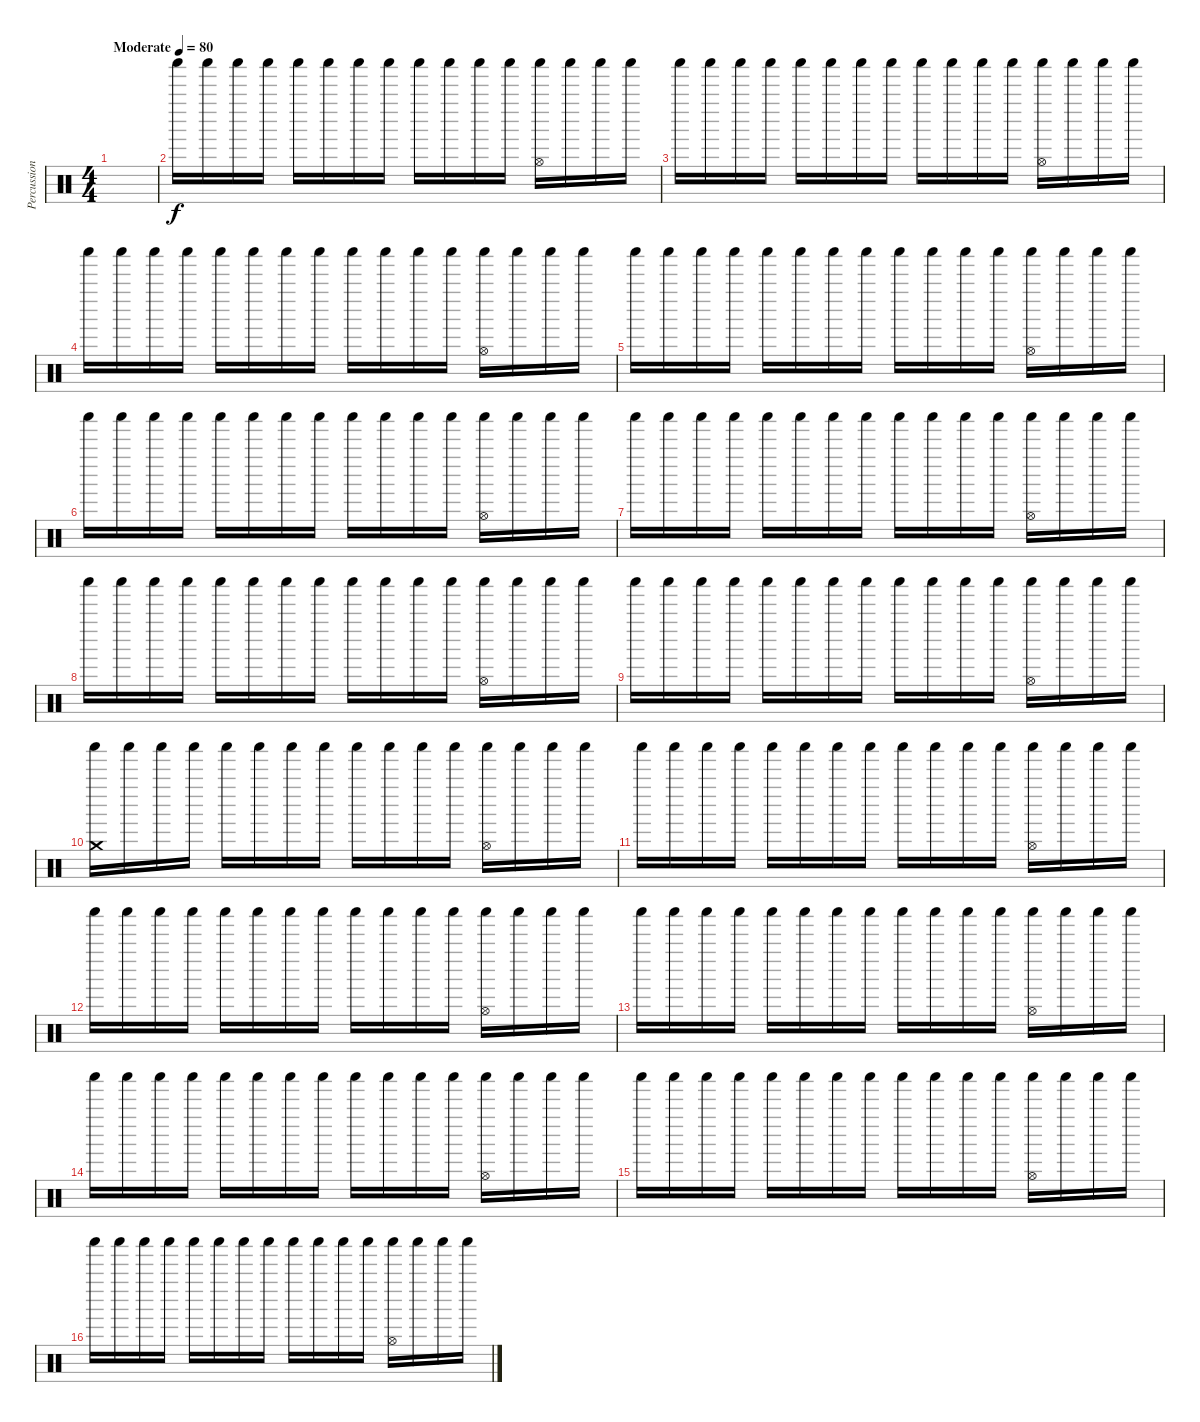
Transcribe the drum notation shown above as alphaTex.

\track ("Percussion" "Percussion") {instrument percussion bank 10}
\staff {score}
\articulation defaults
\ts (4 4)
\tempo (80 "Moderate")
\clef neutral
\ks c
|
"Shaker (hit)".16 "Shaker (hit)".16 "Shaker (hit)".16 "Shaker (hit)".16 "Shaker (hit)".16 "Shaker (hit)".16 "Shaker (hit)".16 "Shaker (hit)".16 "Shaker (hit)".16 "Shaker (hit)".16 "Shaker (hit)".16 "Shaker (hit)".16 ("Hi-Hat (open)" "Shaker (hit)").16 "Shaker (hit)".16 "Shaker (hit)".16 "Shaker (hit)".16 |
"Shaker (hit)".16 "Shaker (hit)".16 "Shaker (hit)".16 "Shaker (hit)".16 "Shaker (hit)".16 "Shaker (hit)".16 "Shaker (hit)".16 "Shaker (hit)".16 "Shaker (hit)".16 "Shaker (hit)".16 "Shaker (hit)".16 "Shaker (hit)".16 ("Hi-Hat (open)" "Shaker (hit)").16 "Shaker (hit)".16 "Shaker (hit)".16 "Shaker (hit)".16 |
"Shaker (hit)".16 "Shaker (hit)".16 "Shaker (hit)".16 "Shaker (hit)".16 "Shaker (hit)".16 "Shaker (hit)".16 "Shaker (hit)".16 "Shaker (hit)".16 "Shaker (hit)".16 "Shaker (hit)".16 "Shaker (hit)".16 "Shaker (hit)".16 ("Hi-Hat (open)" "Shaker (hit)").16 "Shaker (hit)".16 "Shaker (hit)".16 "Shaker (hit)".16 |
"Shaker (hit)".16 "Shaker (hit)".16 "Shaker (hit)".16 "Shaker (hit)".16 "Shaker (hit)".16 "Shaker (hit)".16 "Shaker (hit)".16 "Shaker (hit)".16 "Shaker (hit)".16 "Shaker (hit)".16 "Shaker (hit)".16 "Shaker (hit)".16 ("Hi-Hat (open)" "Shaker (hit)").16 "Shaker (hit)".16 "Shaker (hit)".16 "Shaker (hit)".16 |
"Shaker (hit)".16 "Shaker (hit)".16 "Shaker (hit)".16 "Shaker (hit)".16 "Shaker (hit)".16 "Shaker (hit)".16 "Shaker (hit)".16 "Shaker (hit)".16 "Shaker (hit)".16 "Shaker (hit)".16 "Shaker (hit)".16 "Shaker (hit)".16 ("Hi-Hat (open)" "Shaker (hit)").16 "Shaker (hit)".16 "Shaker (hit)".16 "Shaker (hit)".16 |
"Shaker (hit)".16 "Shaker (hit)".16 "Shaker (hit)".16 "Shaker (hit)".16 "Shaker (hit)".16 "Shaker (hit)".16 "Shaker (hit)".16 "Shaker (hit)".16 "Shaker (hit)".16 "Shaker (hit)".16 "Shaker (hit)".16 "Shaker (hit)".16 ("Hi-Hat (open)" "Shaker (hit)").16 "Shaker (hit)".16 "Shaker (hit)".16 "Shaker (hit)".16 |
"Shaker (hit)".16 "Shaker (hit)".16 "Shaker (hit)".16 "Shaker (hit)".16 "Shaker (hit)".16 "Shaker (hit)".16 "Shaker (hit)".16 "Shaker (hit)".16 "Shaker (hit)".16 "Shaker (hit)".16 "Shaker (hit)".16 "Shaker (hit)".16 ("Hi-Hat (open)" "Shaker (hit)").16 "Shaker (hit)".16 "Shaker (hit)".16 "Shaker (hit)".16 |
"Shaker (hit)".16 "Shaker (hit)".16 "Shaker (hit)".16 "Shaker (hit)".16 "Shaker (hit)".16 "Shaker (hit)".16 "Shaker (hit)".16 "Shaker (hit)".16 "Shaker (hit)".16 "Shaker (hit)".16 "Shaker (hit)".16 "Shaker (hit)".16 ("Hi-Hat (open)" "Shaker (hit)").16 "Shaker (hit)".16 "Shaker (hit)".16 "Shaker (hit)".16 |
("Crash medium (hit)" "Shaker (hit)").16 "Shaker (hit)".16 "Shaker (hit)".16 "Shaker (hit)".16 "Shaker (hit)".16 "Shaker (hit)".16 "Shaker (hit)".16 "Shaker (hit)".16 "Shaker (hit)".16 "Shaker (hit)".16 "Shaker (hit)".16 "Shaker (hit)".16 ("Hi-Hat (open)" "Shaker (hit)").16 "Shaker (hit)".16 "Shaker (hit)".16 "Shaker (hit)".16 |
"Shaker (hit)".16 "Shaker (hit)".16 "Shaker (hit)".16 "Shaker (hit)".16 "Shaker (hit)".16 "Shaker (hit)".16 "Shaker (hit)".16 "Shaker (hit)".16 "Shaker (hit)".16 "Shaker (hit)".16 "Shaker (hit)".16 "Shaker (hit)".16 ("Hi-Hat (open)" "Shaker (hit)").16 "Shaker (hit)".16 "Shaker (hit)".16 "Shaker (hit)".16 |
"Shaker (hit)".16 "Shaker (hit)".16 "Shaker (hit)".16 "Shaker (hit)".16 "Shaker (hit)".16 "Shaker (hit)".16 "Shaker (hit)".16 "Shaker (hit)".16 "Shaker (hit)".16 "Shaker (hit)".16 "Shaker (hit)".16 "Shaker (hit)".16 ("Hi-Hat (open)" "Shaker (hit)").16 "Shaker (hit)".16 "Shaker (hit)".16 "Shaker (hit)".16 |
"Shaker (hit)".16 "Shaker (hit)".16 "Shaker (hit)".16 "Shaker (hit)".16 "Shaker (hit)".16 "Shaker (hit)".16 "Shaker (hit)".16 "Shaker (hit)".16 "Shaker (hit)".16 "Shaker (hit)".16 "Shaker (hit)".16 "Shaker (hit)".16 ("Hi-Hat (open)" "Shaker (hit)").16 "Shaker (hit)".16 "Shaker (hit)".16 "Shaker (hit)".16 |
"Shaker (hit)".16 "Shaker (hit)".16 "Shaker (hit)".16 "Shaker (hit)".16 "Shaker (hit)".16 "Shaker (hit)".16 "Shaker (hit)".16 "Shaker (hit)".16 "Shaker (hit)".16 "Shaker (hit)".16 "Shaker (hit)".16 "Shaker (hit)".16 ("Hi-Hat (open)" "Shaker (hit)").16 "Shaker (hit)".16 "Shaker (hit)".16 "Shaker (hit)".16 |
"Shaker (hit)".16 "Shaker (hit)".16 "Shaker (hit)".16 "Shaker (hit)".16 "Shaker (hit)".16 "Shaker (hit)".16 "Shaker (hit)".16 "Shaker (hit)".16 "Shaker (hit)".16 "Shaker (hit)".16 "Shaker (hit)".16 "Shaker (hit)".16 ("Hi-Hat (open)" "Shaker (hit)").16 "Shaker (hit)".16 "Shaker (hit)".16 "Shaker (hit)".16 |
"Shaker (hit)".16 "Shaker (hit)".16 "Shaker (hit)".16 "Shaker (hit)".16 "Shaker (hit)".16 "Shaker (hit)".16 "Shaker (hit)".16 "Shaker (hit)".16 "Shaker (hit)".16 "Shaker (hit)".16 "Shaker (hit)".16 "Shaker (hit)".16 ("Hi-Hat (open)" "Shaker (hit)").16 "Shaker (hit)".16 "Shaker (hit)".16 "Shaker (hit)".16
